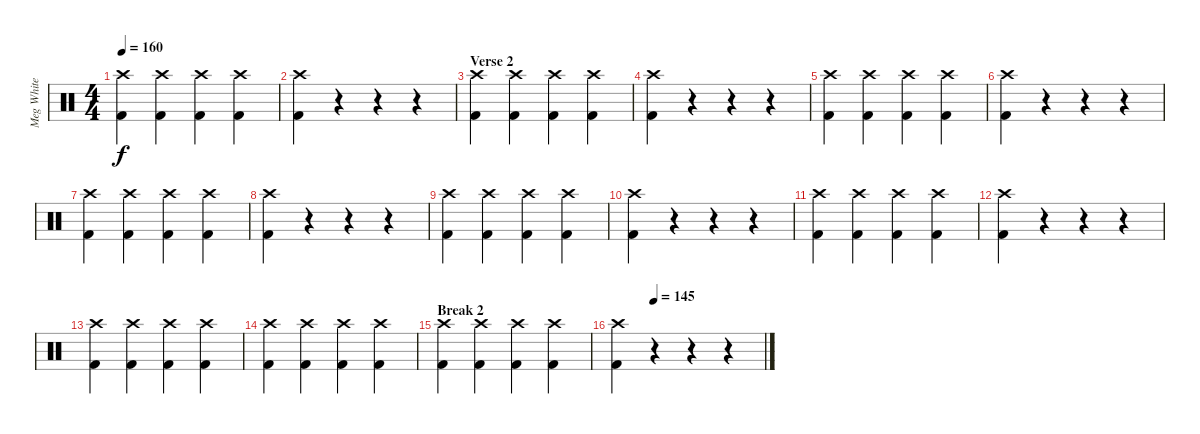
\track ("Meg White - Drums" "Meg White ") {instrument percussion}
\staff {score}
\articulation defaults
\ts (4 4)
\tempo 160
\clef neutral
\ks c
("Crash high (hit)" "Kick (hit) 2").4{dy f} ("Crash high (hit)" "Kick (hit) 2").4 ("Crash high (hit)" "Kick (hit) 2").4 ("Crash high (hit)" "Kick (hit) 2").4 |
("Crash high (hit)" "Kick (hit) 2").4 r.4 r.4 r.4 |
\section ("" "Verse 2")
("Crash high (hit)" "Kick (hit) 2").4 ("Crash high (hit)" "Kick (hit) 2").4 ("Crash high (hit)" "Kick (hit) 2").4 ("Crash high (hit)" "Kick (hit) 2").4 |
("Crash high (hit)" "Kick (hit) 2").4 r.4 r.4 r.4 |
("Crash high (hit)" "Kick (hit) 2").4 ("Crash high (hit)" "Kick (hit) 2").4 ("Crash high (hit)" "Kick (hit) 2").4 ("Crash high (hit)" "Kick (hit) 2").4 |
("Crash high (hit)" "Kick (hit) 2").4 r.4 r.4 r.4 |
("Crash high (hit)" "Kick (hit) 2").4 ("Crash high (hit)" "Kick (hit) 2").4 ("Crash high (hit)" "Kick (hit) 2").4 ("Crash high (hit)" "Kick (hit) 2").4 |
("Crash high (hit)" "Kick (hit) 2").4 r.4 r.4 r.4 |
("Crash high (hit)" "Kick (hit) 2").4 ("Crash high (hit)" "Kick (hit) 2").4 ("Crash high (hit)" "Kick (hit) 2").4 ("Crash high (hit)" "Kick (hit) 2").4 |
("Crash high (hit)" "Kick (hit) 2").4 r.4 r.4 r.4 |
("Crash high (hit)" "Kick (hit) 2").4 ("Crash high (hit)" "Kick (hit) 2").4 ("Crash high (hit)" "Kick (hit) 2").4 ("Crash high (hit)" "Kick (hit) 2").4 |
("Crash high (hit)" "Kick (hit) 2").4 r.4 r.4 r.4 |
("Crash high (hit)" "Kick (hit) 2").4 ("Crash high (hit)" "Kick (hit) 2").4 ("Crash high (hit)" "Kick (hit) 2").4 ("Crash high (hit)" "Kick (hit) 2").4 |
("Crash high (hit)" "Kick (hit) 2").4 ("Crash high (hit)" "Kick (hit) 2").4 ("Crash high (hit)" "Kick (hit) 2").4 ("Crash high (hit)" "Kick (hit) 2").4 |
\section ("" "Break 2")
("Crash high (hit)" "Kick (hit) 2").4 ("Crash high (hit)" "Kick (hit) 2").4 ("Crash high (hit)" "Kick (hit) 2").4 ("Crash high (hit)" "Kick (hit) 2").4 |
\tempo (145 0.25)
("Crash high (hit)" "Kick (hit) 2").4 r.4 r.4 r.4
